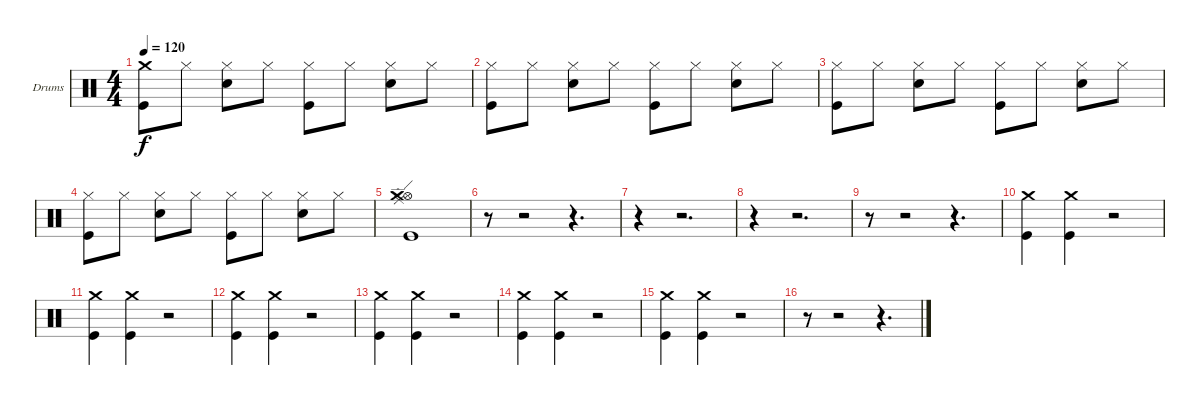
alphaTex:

\bracketExtendMode groupsimilarinstruments
\firstSystemTrackNameOrientation horizontal
\otherSystemsTrackNameOrientation horizontal
\track ("Drumkit" "Drums") {instrument percussion}
\staff {score}
\articulation defaults
\ts (4 4)
\tempo 120
\clef neutral
\ks c
("Crash medium (hit)" "Kick (hit)").8{dy f} "Hi-Hat (closed)".8 ("Hi-Hat (closed)" "Snare (hit) 2").8 "Hi-Hat (closed)".8 ("Hi-Hat (closed)" "Kick (hit)").8 "Hi-Hat (closed)".8 ("Hi-Hat (closed)" "Snare (hit) 2").8 "Hi-Hat (closed)".8 |
("Hi-Hat (closed)" "Kick (hit)").8 "Hi-Hat (closed)".8 ("Hi-Hat (closed)" "Snare (hit) 2").8 "Hi-Hat (closed)".8 ("Hi-Hat (closed)" "Kick (hit)").8 "Hi-Hat (closed)".8 ("Hi-Hat (closed)" "Snare (hit) 2").8 "Hi-Hat (closed)".8 |
("Hi-Hat (closed)" "Kick (hit)").8 "Hi-Hat (closed)".8 ("Hi-Hat (closed)" "Snare (hit) 2").8 "Hi-Hat (closed)".8 ("Hi-Hat (closed)" "Kick (hit)").8 "Hi-Hat (closed)".8 ("Hi-Hat (closed)" "Snare (hit) 2").8 "Hi-Hat (closed)".8 |
("Hi-Hat (closed)" "Kick (hit)").8 "Hi-Hat (closed)".8 ("Hi-Hat (closed)" "Snare (hit) 2").8 "Hi-Hat (closed)".8 ("Hi-Hat (closed)" "Kick (hit)").8 "Hi-Hat (closed)".8 ("Hi-Hat (closed)" "Snare (hit) 2").8 "Hi-Hat (closed)".8 |
("Ride (edge)" "Hi-Hat (open)" "Crash medium (hit)" "Kick (hit)").1 |
r.8 r.2 r.4{d} |
r.4 r.2{d} |
r.4 r.2{d} |
r.8 r.2 r.4{d} |
("Crash medium (hit)" "Kick (hit)").4 ("Crash medium (hit)" "Kick (hit)").4 r.2 |
("Crash medium (hit)" "Kick (hit)").4 ("Crash medium (hit)" "Kick (hit)").4 r.2 |
("Crash medium (hit)" "Kick (hit)").4 ("Crash medium (hit)" "Kick (hit)").4 r.2 |
("Crash medium (hit)" "Kick (hit)").4 ("Crash medium (hit)" "Kick (hit)").4 r.2 |
("Crash medium (hit)" "Kick (hit)").4 ("Crash medium (hit)" "Kick (hit)").4 r.2 |
("Crash medium (hit)" "Kick (hit)").4 ("Crash medium (hit)" "Kick (hit)").4 r.2 |
r.8 r.2 r.4{d}
